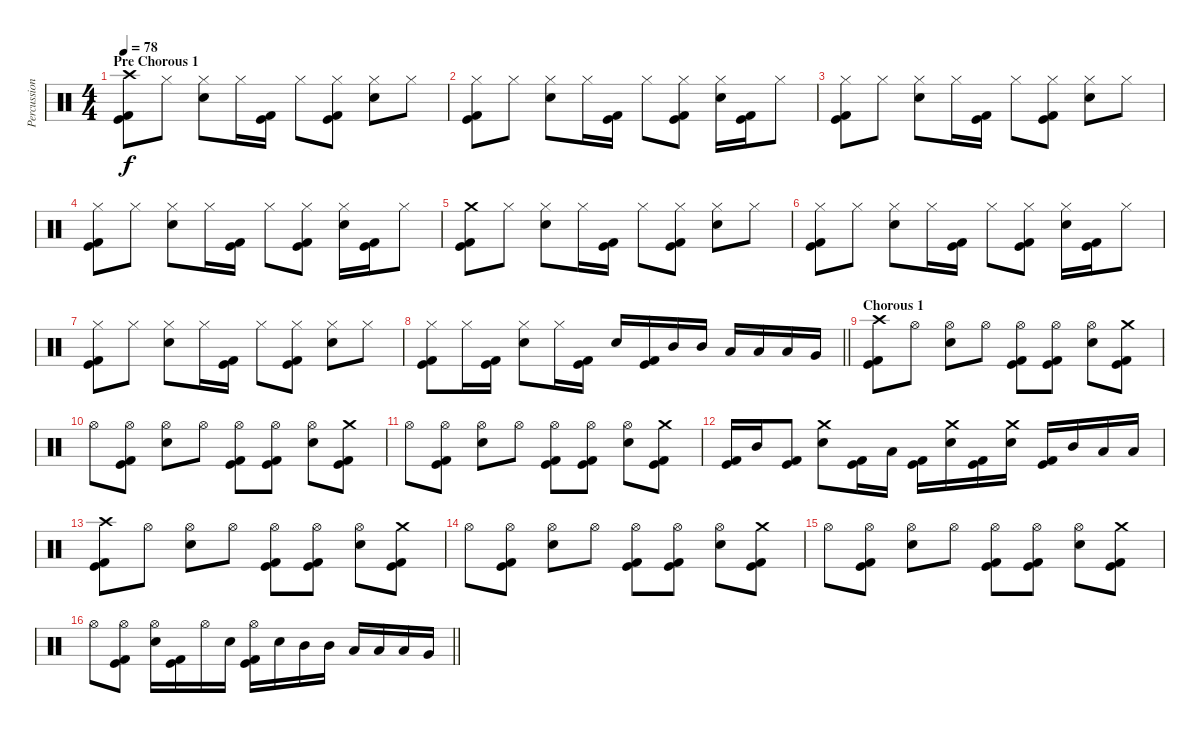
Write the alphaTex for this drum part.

\track ("Percussion" "Percussion") {instrument percussion}
\staff {score}
\articulation defaults
\ts (4 4)
\section ("" "Pre Chorous 1")
\tempo 78
\clef neutral
\ks c
("Crash high (hit)" "Kick (hit)" "Kick (hit) 2").8{dy f} "Hi-Hat (closed)".8 ("Hi-Hat (closed)" "Electric Snare (hit)").8 "Hi-Hat (closed)".16 ("Kick (hit)" "Kick (hit) 2").16 "Hi-Hat (closed)".8 ("Hi-Hat (closed)" "Kick (hit)" "Kick (hit) 2").8 ("Hi-Hat (closed)" "Electric Snare (hit)").8 "Hi-Hat (closed)".8 |
("Hi-Hat (closed)" "Kick (hit)" "Kick (hit) 2").8 "Hi-Hat (closed)".8 ("Hi-Hat (closed)" "Electric Snare (hit)").8 "Hi-Hat (closed)".16 ("Kick (hit)" "Kick (hit) 2").16 "Hi-Hat (closed)".8 ("Hi-Hat (closed)" "Kick (hit)" "Kick (hit) 2").8 ("Hi-Hat (closed)" "Electric Snare (hit)").16 ("Kick (hit)" "Kick (hit) 2").16 "Hi-Hat (closed)".8 |
("Hi-Hat (closed)" "Kick (hit)" "Kick (hit) 2").8 "Hi-Hat (closed)".8 ("Hi-Hat (closed)" "Electric Snare (hit)").8 "Hi-Hat (closed)".16 ("Kick (hit)" "Kick (hit) 2").16 "Hi-Hat (closed)".8 ("Hi-Hat (closed)" "Kick (hit)" "Kick (hit) 2").8 ("Hi-Hat (closed)" "Electric Snare (hit)").8 "Hi-Hat (closed)".8 |
("Hi-Hat (closed)" "Kick (hit)" "Kick (hit) 2").8 "Hi-Hat (closed)".8 ("Hi-Hat (closed)" "Electric Snare (hit)").8 "Hi-Hat (closed)".16 ("Kick (hit)" "Kick (hit) 2").16 "Hi-Hat (closed)".8 ("Hi-Hat (closed)" "Kick (hit)" "Kick (hit) 2").8 ("Hi-Hat (closed)" "Electric Snare (hit)").16 ("Kick (hit)" "Kick (hit) 2").16 "Hi-Hat (closed)".8 |
("Crash medium (hit)" "Kick (hit)" "Kick (hit) 2").8 "Hi-Hat (closed)".8 ("Hi-Hat (closed)" "Electric Snare (hit)").8 "Hi-Hat (closed)".16 ("Kick (hit)" "Kick (hit) 2").16 "Hi-Hat (closed)".8 ("Hi-Hat (closed)" "Kick (hit)" "Kick (hit) 2").8 ("Hi-Hat (closed)" "Electric Snare (hit)").8 "Hi-Hat (closed)".8 |
("Hi-Hat (closed)" "Kick (hit)" "Kick (hit) 2").8 "Hi-Hat (closed)".8 ("Hi-Hat (closed)" "Electric Snare (hit)").8 "Hi-Hat (closed)".16 ("Kick (hit)" "Kick (hit) 2").16 "Hi-Hat (closed)".8 ("Hi-Hat (closed)" "Kick (hit)" "Kick (hit) 2").8 ("Hi-Hat (closed)" "Electric Snare (hit)").16 ("Kick (hit)" "Kick (hit) 2").16 "Hi-Hat (closed)".8 |
("Hi-Hat (closed)" "Kick (hit)" "Kick (hit) 2").8 "Hi-Hat (closed)".8 ("Hi-Hat (closed)" "Electric Snare (hit)").8 "Hi-Hat (closed)".16 ("Kick (hit)" "Kick (hit) 2").16 "Hi-Hat (closed)".8 ("Hi-Hat (closed)" "Kick (hit)" "Kick (hit) 2").8 ("Hi-Hat (closed)" "Electric Snare (hit)").8 "Hi-Hat (closed)".8 |
\barLineRight lightlight
("Hi-Hat (closed)" "Kick (hit)" "Kick (hit) 2").8 "Hi-Hat (closed)".16 ("Kick (hit)" "Kick (hit) 2").16 ("Hi-Hat (closed)" "Electric Snare (hit)").8 "Hi-Hat (closed)".16 ("Kick (hit)" "Kick (hit) 2").16 "Electric Snare (hit)".16 ("Kick (hit)" "Kick (hit) 2").16 "Mid Tom (hit)".16 "Mid Tom (hit)".16 "Low Tom (hit)".16 "Low Tom (hit)".16 "Low Tom (hit)".16 "Very Low Tom (hit)".16 |
\section ("" "Chorous 1")
("Crash high (hit)" "Kick (hit)" "Kick (hit) 2").8 "Hi-Hat (open)".8 ("Hi-Hat (open)" "Electric Snare (hit)").8 "Hi-Hat (open)".8 ("Hi-Hat (open)" "Kick (hit)" "Kick (hit) 2").8 ("Hi-Hat (open)" "Kick (hit)" "Kick (hit) 2").8 ("Hi-Hat (open)" "Electric Snare (hit)").8 ("Crash medium (hit)" "Kick (hit)" "Kick (hit) 2").8 |
"Hi-Hat (open)".8 ("Hi-Hat (open)" "Kick (hit)" "Kick (hit) 2").8 ("Hi-Hat (open)" "Electric Snare (hit)").8 "Hi-Hat (open)".8 ("Hi-Hat (open)" "Kick (hit)" "Kick (hit) 2").8 ("Hi-Hat (open)" "Kick (hit)" "Kick (hit) 2").8 ("Hi-Hat (open)" "Electric Snare (hit)").8 ("Crash medium (hit)" "Kick (hit)" "Kick (hit) 2").8 |
"Hi-Hat (open)".8 ("Hi-Hat (open)" "Kick (hit)" "Kick (hit) 2").8 ("Hi-Hat (open)" "Electric Snare (hit)").8 "Hi-Hat (open)".8 ("Hi-Hat (open)" "Kick (hit)" "Kick (hit) 2").8 ("Hi-Hat (open)" "Kick (hit)" "Kick (hit) 2").8 ("Hi-Hat (open)" "Electric Snare (hit)").8 ("Crash medium (hit)" "Kick (hit)" "Kick (hit) 2").8 |
("Kick (hit)" "Kick (hit) 2").16 "Mid Tom (hit)".16 ("Kick (hit)" "Kick (hit) 2").8 ("Crash medium (hit)" "Electric Snare (hit)").8 ("Kick (hit)" "Kick (hit) 2").16 "Low Tom (hit)".16 ("Kick (hit)" "Kick (hit) 2").16 ("Crash medium (hit)" "Electric Snare (hit)").16 ("Kick (hit)" "Kick (hit) 2").16 ("Crash medium (hit)" "Electric Snare (hit)").16 ("Kick (hit)" "Kick (hit) 2").16 "Mid Tom (hit)".16 "Low Tom (hit)".16 "Low Tom (hit)".16 |
("Crash high (hit)" "Kick (hit)" "Kick (hit) 2").8 "Hi-Hat (open)".8 ("Hi-Hat (open)" "Electric Snare (hit)").8 "Hi-Hat (open)".8 ("Hi-Hat (open)" "Kick (hit)" "Kick (hit) 2").8 ("Hi-Hat (open)" "Kick (hit)" "Kick (hit) 2").8 ("Hi-Hat (open)" "Electric Snare (hit)").8 ("Crash medium (hit)" "Kick (hit)" "Kick (hit) 2").8 |
"Hi-Hat (open)".8 ("Hi-Hat (open)" "Kick (hit)" "Kick (hit) 2").8 ("Hi-Hat (open)" "Electric Snare (hit)").8 "Hi-Hat (open)".8 ("Hi-Hat (open)" "Kick (hit)" "Kick (hit) 2").8 ("Hi-Hat (open)" "Kick (hit)" "Kick (hit) 2").8 ("Hi-Hat (open)" "Electric Snare (hit)").8 ("Crash medium (hit)" "Kick (hit)" "Kick (hit) 2").8 |
"Hi-Hat (open)".8 ("Hi-Hat (open)" "Kick (hit)" "Kick (hit) 2").8 ("Hi-Hat (open)" "Electric Snare (hit)").8 "Hi-Hat (open)".8 ("Hi-Hat (open)" "Kick (hit)" "Kick (hit) 2").8 ("Hi-Hat (open)" "Kick (hit)" "Kick (hit) 2").8 ("Hi-Hat (open)" "Electric Snare (hit)").8 ("Crash medium (hit)" "Kick (hit)" "Kick (hit) 2").8 |
\barLineRight lightlight "Hi-Hat (open)".8
("Hi-Hat (open)" "Kick (hit)" "Kick (hit) 2").8 ("Hi-Hat (open)" "Electric Snare (hit)").16 ("Kick (hit)" "Kick (hit) 2").16 "Hi-Hat (open)".16 "Electric Snare (hit)".16 ("Hi-Hat (open)" "Kick (hit)" "Kick (hit) 2").16 "Electric Snare (hit)".16 "Mid Tom (hit)".16 "Mid Tom (hit)".16 "Low Tom (hit)".16 "Low Tom (hit)".16 "Low Tom (hit)".16 "Very Low Tom (hit)".16
